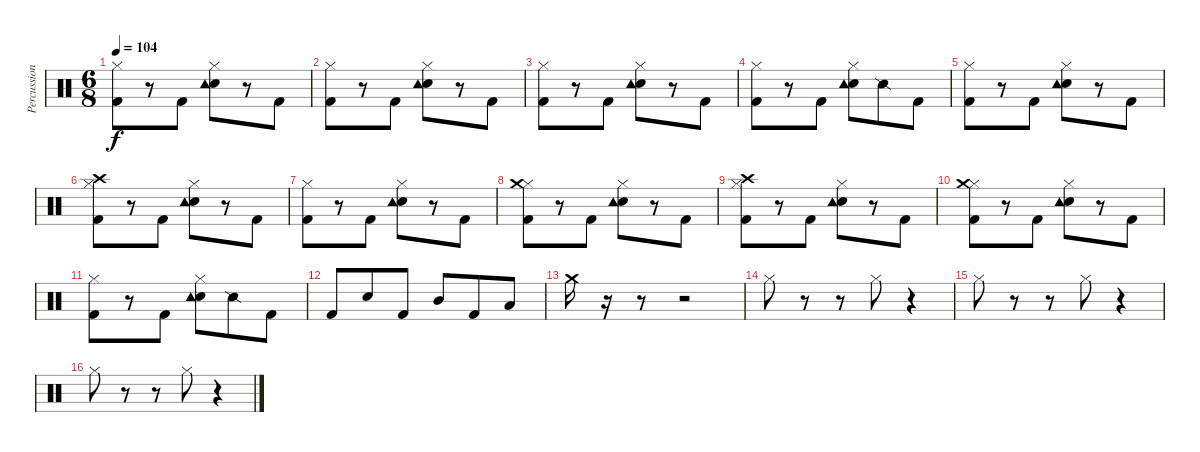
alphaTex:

\track ("Percussion" "Percussion") {instrument percussion}
\staff {score}
\articulation defaults
\ts (6 8)
\tempo 104
\clef neutral
\ks c
("Hi-Hat (closed)" "Kick (hit) 2").8{dy f} r.8 "Kick (hit) 2".8 ("Snare (hit) 2" "Tambourine (hit)" "Hi-Hat (closed)").8 r.8 "Kick (hit) 2".8 |
("Hi-Hat (closed)" "Kick (hit) 2").8 r.8 "Kick (hit) 2".8 ("Snare (hit) 2" "Tambourine (hit)" "Hi-Hat (closed)").8 r.8 "Kick (hit) 2".8 |
("Hi-Hat (closed)" "Kick (hit) 2").8 r.8 "Kick (hit) 2".8 ("Snare (hit) 2" "Tambourine (hit)" "Hi-Hat (closed)").8 r.8 "Kick (hit) 2".8 |
("Hi-Hat (closed)" "Kick (hit) 2").8 r.8 "Kick (hit) 2".8 ("Snare (hit) 2" "Tambourine (hit)" "Hi-Hat (closed)").8 "Snare (side stick) 2".8 "Kick (hit) 2".8 |
("Hi-Hat (closed)" "Kick (hit) 2").8 r.8 "Kick (hit) 2".8 ("Snare (hit) 2" "Tambourine (hit)" "Hi-Hat (closed)").8 r.8 "Kick (hit) 2".8 |
("Hi-Hat (closed)" "Kick (hit) 2" "Crash high (hit)").8 r.8 "Kick (hit) 2".8 ("Snare (hit) 2" "Tambourine (hit)" "Hi-Hat (closed)").8 r.8 "Kick (hit) 2".8 |
("Hi-Hat (closed)" "Kick (hit) 2").8 r.8 "Kick (hit) 2".8 ("Snare (hit) 2" "Tambourine (hit)" "Hi-Hat (closed)").8 r.8 "Kick (hit) 2".8 |
("Hi-Hat (closed)" "Kick (hit) 2" "Crash medium (hit)").8 r.8 "Kick (hit) 2".8 ("Snare (hit) 2" "Tambourine (hit)" "Hi-Hat (closed)").8 r.8 "Kick (hit) 2".8 |
("Hi-Hat (closed)" "Kick (hit) 2" "Crash high (hit)").8 r.8 "Kick (hit) 2".8 ("Snare (hit) 2" "Tambourine (hit)" "Hi-Hat (closed)").8 r.8 "Kick (hit) 2".8 |
("Hi-Hat (closed)" "Kick (hit) 2" "Crash medium (hit)").8 r.8 "Kick (hit) 2".8 ("Snare (hit) 2" "Tambourine (hit)" "Hi-Hat (closed)").8 r.8 "Kick (hit) 2".8 |
("Hi-Hat (closed)" "Kick (hit) 2").8 r.8 "Kick (hit) 2".8 ("Snare (hit) 2" "Tambourine (hit)" "Hi-Hat (closed)").8 "Snare (side stick) 2".8 "Kick (hit) 2".8 |
"Kick (hit) 2".8 "Snare (hit) 2".8 "Kick (hit) 2".8 "Mid Tom (hit)".8 "Kick (hit) 2".8 "Low Tom (hit)".8 |
"Crash medium (hit)".16 r.16 r.8 r.2 |
"Hi-Hat (closed)".8 r.8 r.8 "Hi-Hat (closed)".8 r.4 |
"Hi-Hat (closed)".8 r.8 r.8 "Hi-Hat (closed)".8 r.4 |
"Hi-Hat (closed)".8 r.8 r.8 "Hi-Hat (closed)".8 r.4
